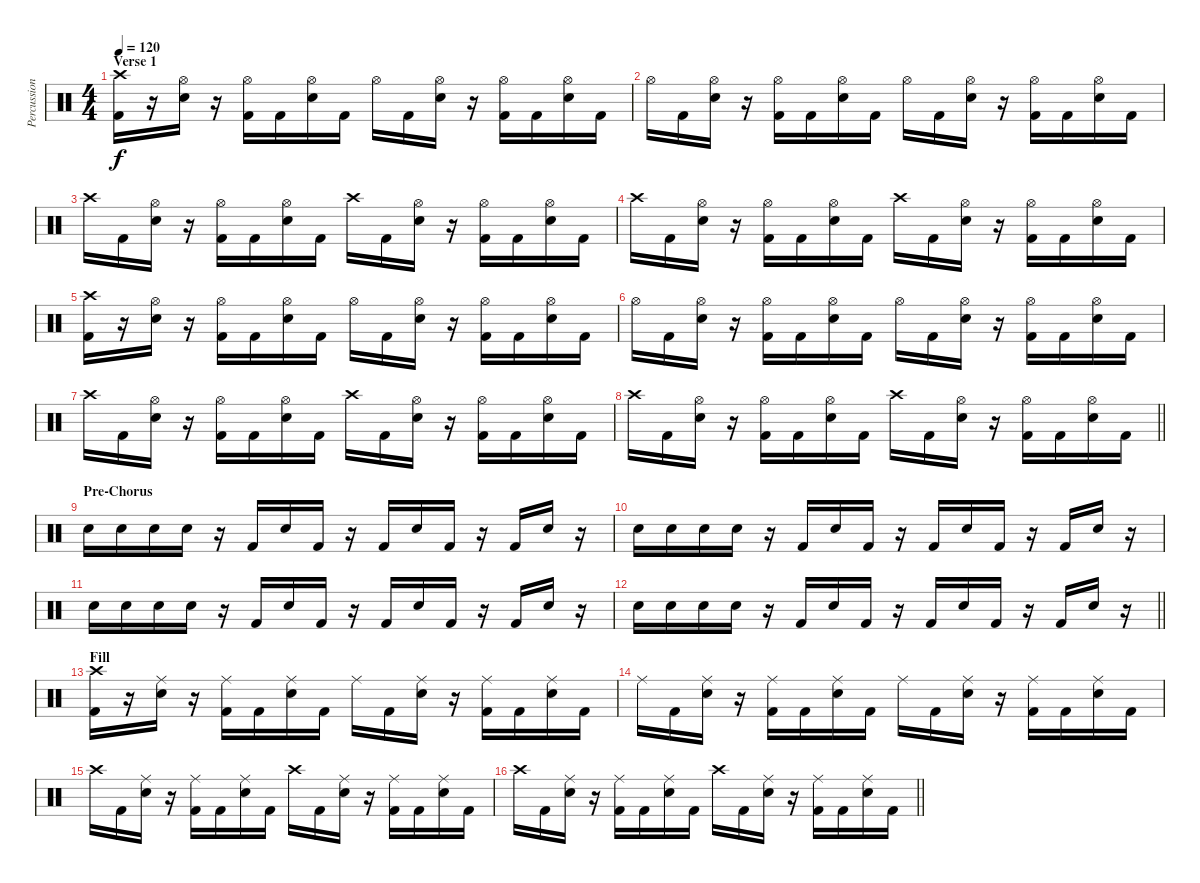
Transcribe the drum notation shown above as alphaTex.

\track ("Percussion" "Percussion") {instrument percussion}
\staff {score}
\articulation defaults
\ts (4 4)
\section ("" "Verse 1")
\tempo 120
\clef neutral
\ks c
("Crash high (hit)" "Kick (hit) 2").16{dy f} r.16 ("Hi-Hat (open)" "Electric Snare (hit)").16 r.16 ("Hi-Hat (open)" "Kick (hit) 2").16 "Kick (hit) 2".16 ("Hi-Hat (open)" "Electric Snare (hit)").16 "Kick (hit) 2".16 "Hi-Hat (open)".16 "Kick (hit) 2".16 ("Hi-Hat (open)" "Electric Snare (hit)").16 r.16 ("Hi-Hat (open)" "Kick (hit) 2").16 "Kick (hit) 2".16 ("Hi-Hat (open)" "Electric Snare (hit)").16 "Kick (hit) 2".16 |
"Hi-Hat (open)".16 "Kick (hit) 2".16 ("Hi-Hat (open)" "Electric Snare (hit)").16 r.16 ("Hi-Hat (open)" "Kick (hit) 2").16 "Kick (hit) 2".16 ("Hi-Hat (open)" "Electric Snare (hit)").16 "Kick (hit) 2".16 "Hi-Hat (open)".16 "Kick (hit) 2".16 ("Hi-Hat (open)" "Electric Snare (hit)").16 r.16 ("Hi-Hat (open)" "Kick (hit) 2").16 "Kick (hit) 2".16 ("Hi-Hat (open)" "Electric Snare (hit)").16 "Kick (hit) 2".16 |
"Crash high (hit)".16 "Kick (hit) 2".16 ("Hi-Hat (open)" "Electric Snare (hit)").16 r.16 ("Hi-Hat (open)" "Kick (hit) 2").16 "Kick (hit) 2".16 ("Hi-Hat (open)" "Electric Snare (hit)").16 "Kick (hit) 2".16 "Crash high (hit)".16 "Kick (hit) 2".16 ("Hi-Hat (open)" "Electric Snare (hit)").16 r.16 ("Hi-Hat (open)" "Kick (hit) 2").16 "Kick (hit) 2".16 ("Hi-Hat (open)" "Electric Snare (hit)").16 "Kick (hit) 2".16 |
"Crash high (hit)".16 "Kick (hit) 2".16 ("Hi-Hat (open)" "Electric Snare (hit)").16 r.16 ("Hi-Hat (open)" "Kick (hit) 2").16 "Kick (hit) 2".16 ("Hi-Hat (open)" "Electric Snare (hit)").16 "Kick (hit) 2".16 "Crash high (hit)".16 "Kick (hit) 2".16 ("Hi-Hat (open)" "Electric Snare (hit)").16 r.16 ("Hi-Hat (open)" "Kick (hit) 2").16 "Kick (hit) 2".16 ("Hi-Hat (open)" "Electric Snare (hit)").16 "Kick (hit) 2".16 |
("Crash high (hit)" "Kick (hit) 2").16 r.16 ("Hi-Hat (open)" "Electric Snare (hit)").16 r.16 ("Hi-Hat (open)" "Kick (hit) 2").16 "Kick (hit) 2".16 ("Hi-Hat (open)" "Electric Snare (hit)").16 "Kick (hit) 2".16 "Hi-Hat (open)".16 "Kick (hit) 2".16 ("Hi-Hat (open)" "Electric Snare (hit)").16 r.16 ("Hi-Hat (open)" "Kick (hit) 2").16 "Kick (hit) 2".16 ("Hi-Hat (open)" "Electric Snare (hit)").16 "Kick (hit) 2".16 |
"Hi-Hat (open)".16 "Kick (hit) 2".16 ("Hi-Hat (open)" "Electric Snare (hit)").16 r.16 ("Hi-Hat (open)" "Kick (hit) 2").16 "Kick (hit) 2".16 ("Hi-Hat (open)" "Electric Snare (hit)").16 "Kick (hit) 2".16 "Hi-Hat (open)".16 "Kick (hit) 2".16 ("Hi-Hat (open)" "Electric Snare (hit)").16 r.16 ("Hi-Hat (open)" "Kick (hit) 2").16 "Kick (hit) 2".16 ("Hi-Hat (open)" "Electric Snare (hit)").16 "Kick (hit) 2".16 |
"Crash high (hit)".16 "Kick (hit) 2".16 ("Hi-Hat (open)" "Electric Snare (hit)").16 r.16 ("Hi-Hat (open)" "Kick (hit) 2").16 "Kick (hit) 2".16 ("Hi-Hat (open)" "Electric Snare (hit)").16 "Kick (hit) 2".16 "Crash high (hit)".16 "Kick (hit) 2".16 ("Hi-Hat (open)" "Electric Snare (hit)").16 r.16 ("Hi-Hat (open)" "Kick (hit) 2").16 "Kick (hit) 2".16 ("Hi-Hat (open)" "Electric Snare (hit)").16 "Kick (hit) 2".16 |
\barLineRight lightlight "Crash high (hit)".16 "Kick (hit) 2".16
("Hi-Hat (open)" "Electric Snare (hit)").16 r.16 ("Hi-Hat (open)" "Kick (hit) 2").16 "Kick (hit) 2".16 ("Hi-Hat (open)" "Electric Snare (hit)").16 "Kick (hit) 2".16 "Crash high (hit)".16 "Kick (hit) 2".16 ("Hi-Hat (open)" "Electric Snare (hit)").16 r.16 ("Hi-Hat (open)" "Kick (hit) 2").16 "Kick (hit) 2".16 ("Hi-Hat (open)" "Electric Snare (hit)").16 "Kick (hit) 2".16 |
\section ("" "Pre-Chorus")
"Electric Snare (hit)".16 "Electric Snare (hit)".16 "Electric Snare (hit)".16 "Electric Snare (hit)".16 r.16 "Kick (hit) 2".16 "Electric Snare (hit)".16 "Kick (hit) 2".16 r.16 "Kick (hit) 2".16 "Electric Snare (hit)".16 "Kick (hit) 2".16 r.16 "Kick (hit) 2".16 "Electric Snare (hit)".16 r.16 |
"Electric Snare (hit)".16 "Electric Snare (hit)".16 "Electric Snare (hit)".16 "Electric Snare (hit)".16 r.16 "Kick (hit) 2".16 "Electric Snare (hit)".16 "Kick (hit) 2".16 r.16 "Kick (hit) 2".16 "Electric Snare (hit)".16 "Kick (hit) 2".16 r.16 "Kick (hit) 2".16 "Electric Snare (hit)".16 r.16 |
"Electric Snare (hit)".16 "Electric Snare (hit)".16 "Electric Snare (hit)".16 "Electric Snare (hit)".16 r.16 "Kick (hit) 2".16 "Electric Snare (hit)".16 "Kick (hit) 2".16 r.16 "Kick (hit) 2".16 "Electric Snare (hit)".16 "Kick (hit) 2".16 r.16 "Kick (hit) 2".16 "Electric Snare (hit)".16 r.16 |
\barLineRight lightlight "Electric Snare (hit)".16 "Electric Snare (hit)".16 "Electric Snare (hit)".16 "Electric Snare (hit)".16
r.16 "Kick (hit) 2".16 "Electric Snare (hit)".16 "Kick (hit) 2".16 r.16 "Kick (hit) 2".16 "Electric Snare (hit)".16 "Kick (hit) 2".16 r.16 "Kick (hit) 2".16 "Electric Snare (hit)".16 r.16 |
\section ("" "Fill")
("Crash high (hit)" "Kick (hit) 2").16 r.16 ("Ride (middle)" "Electric Snare (hit)").16 r.16 ("Ride (middle)" "Kick (hit) 2").16 "Kick (hit) 2".16 ("Ride (middle)" "Electric Snare (hit)").16 "Kick (hit) 2".16 "Ride (middle)".16 "Kick (hit) 2".16 ("Ride (middle)" "Electric Snare (hit)").16 r.16 ("Ride (middle)" "Kick (hit) 2").16 "Kick (hit) 2".16 ("Ride (middle)" "Electric Snare (hit)").16 "Kick (hit) 2".16 |
"Ride (middle)".16 "Kick (hit) 2".16 ("Ride (middle)" "Electric Snare (hit)").16 r.16 ("Ride (middle)" "Kick (hit) 2").16 "Kick (hit) 2".16 ("Ride (middle)" "Electric Snare (hit)").16 "Kick (hit) 2".16 "Ride (middle)".16 "Kick (hit) 2".16 ("Ride (middle)" "Electric Snare (hit)").16 r.16 ("Ride (middle)" "Kick (hit) 2").16 "Kick (hit) 2".16 ("Ride (middle)" "Electric Snare (hit)").16 "Kick (hit) 2".16 |
"Crash high (hit)".16 "Kick (hit) 2".16 ("Ride (middle)" "Electric Snare (hit)").16 r.16 ("Ride (middle)" "Kick (hit) 2").16 "Kick (hit) 2".16 ("Ride (middle)" "Electric Snare (hit)").16 "Kick (hit) 2".16 "Crash high (hit)".16 "Kick (hit) 2".16 ("Ride (middle)" "Electric Snare (hit)").16 r.16 ("Ride (middle)" "Kick (hit) 2").16 "Kick (hit) 2".16 ("Ride (middle)" "Electric Snare (hit)").16 "Kick (hit) 2".16 |
\barLineRight lightlight "Crash high (hit)".16 "Kick (hit) 2".16
("Ride (middle)" "Electric Snare (hit)").16 r.16 ("Ride (middle)" "Kick (hit) 2").16 "Kick (hit) 2".16 ("Ride (middle)" "Electric Snare (hit)").16 "Kick (hit) 2".16 "Crash high (hit)".16 "Kick (hit) 2".16 ("Ride (middle)" "Electric Snare (hit)").16 r.16 ("Ride (middle)" "Kick (hit) 2").16 "Kick (hit) 2".16 ("Ride (middle)" "Electric Snare (hit)").16 "Kick (hit) 2".16
